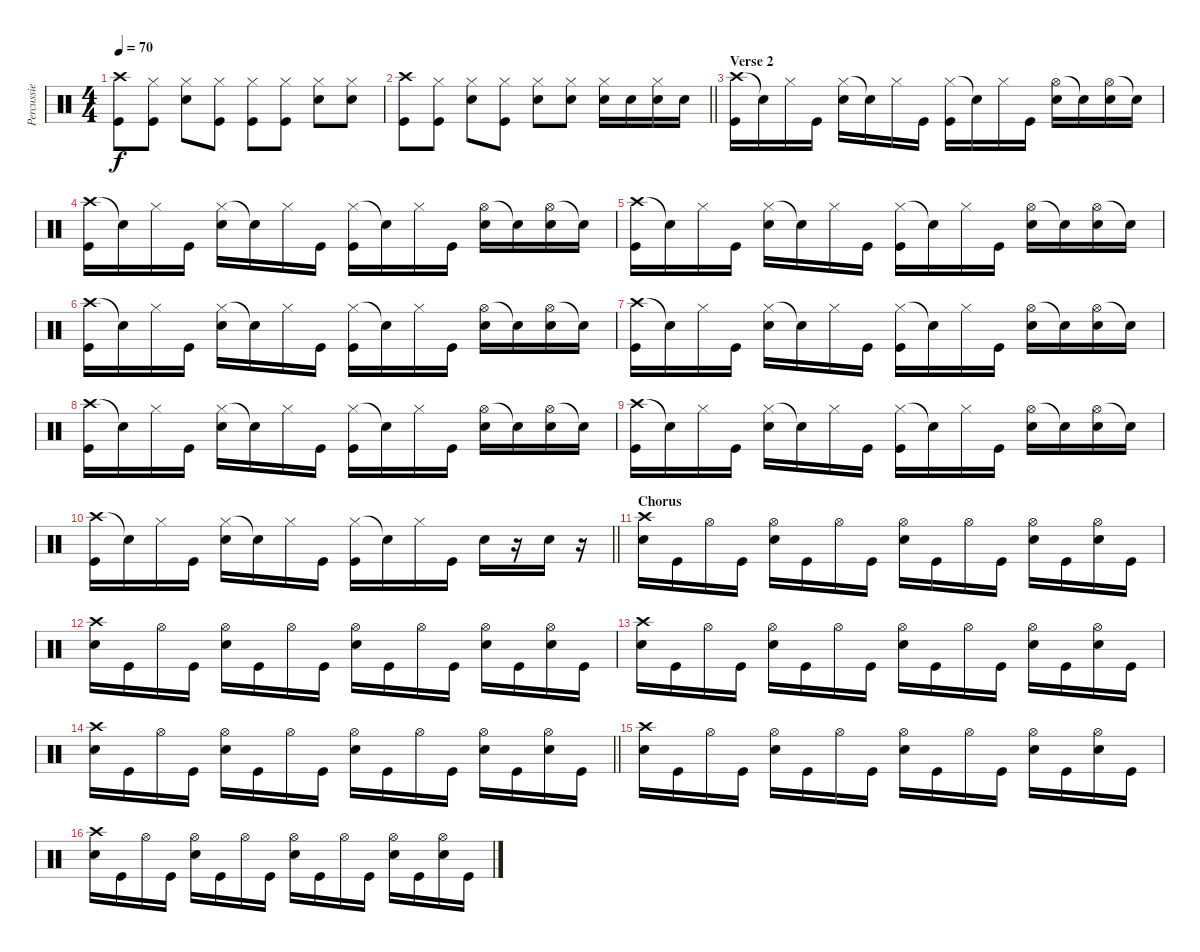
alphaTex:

\track ("Percussie" "Percussie") {instrument percussion}
\staff {score}
\articulation defaults
\ts (4 4)
\tempo 70
\clef neutral
\ks c
("Crash high (hit)" "Kick (hit)").8{dy f} ("Hi-Hat (closed)" "Kick (hit)").8 ("Hi-Hat (closed)" "Snare (hit) 2").8 ("Hi-Hat (closed)" "Kick (hit)").8 ("Hi-Hat (closed)" "Kick (hit)").8 ("Hi-Hat (closed)" "Kick (hit)").8 ("Hi-Hat (closed)" "Snare (hit) 2").8 ("Hi-Hat (closed)" "Snare (hit) 2").8 |
\barLineRight lightlight
("Crash high (hit)" "Kick (hit)").8 ("Hi-Hat (closed)" "Kick (hit)").8 ("Hi-Hat (closed)" "Snare (hit) 2").8 ("Hi-Hat (closed)" "Kick (hit)").8 ("Hi-Hat (closed)" "Snare (hit) 2").8 ("Hi-Hat (closed)" "Snare (hit) 2").8 ("Hi-Hat (closed)" "Snare (hit) 2").16 "Snare (hit) 2".16 ("Hi-Hat (closed)" "Snare (hit) 2").16 "Snare (hit) 2".16 |
\section ("" "Verse 2")
("Crash high (hit)" "Kick (hit)").16 "Snare (hit)"{t}.16 "Hi-Hat (closed)".16 "Kick (hit)".16 ("Hi-Hat (closed)" "Snare (hit) 2").16 "Snare (hit)"{t}.16 "Hi-Hat (closed)".16 "Kick (hit)".16 ("Hi-Hat (closed)" "Kick (hit)").16 "Snare (hit)"{t}.16 "Hi-Hat (closed)".16 "Kick (hit)".16 ("Hi-Hat (open)" "Snare (hit) 2").16 "Snare (hit)"{t}.16 ("Hi-Hat (open)" "Snare (hit) 2").16 "Snare (hit)"{t}.16 |
("Crash high (hit)" "Kick (hit)").16 "Snare (hit)"{t}.16 "Hi-Hat (closed)".16 "Kick (hit)".16 ("Hi-Hat (closed)" "Snare (hit) 2").16 "Snare (hit)"{t}.16 "Hi-Hat (closed)".16 "Kick (hit)".16 ("Hi-Hat (closed)" "Kick (hit)").16 "Snare (hit)"{t}.16 "Hi-Hat (closed)".16 "Kick (hit)".16 ("Hi-Hat (open)" "Snare (hit) 2").16 "Snare (hit)"{t}.16 ("Hi-Hat (open)" "Snare (hit) 2").16 "Snare (hit)"{t}.16 |
("Crash high (hit)" "Kick (hit)").16 "Snare (hit)"{t}.16 "Hi-Hat (closed)".16 "Kick (hit)".16 ("Hi-Hat (closed)" "Snare (hit) 2").16 "Snare (hit)"{t}.16 "Hi-Hat (closed)".16 "Kick (hit)".16 ("Hi-Hat (closed)" "Kick (hit)").16 "Snare (hit)"{t}.16 "Hi-Hat (closed)".16 "Kick (hit)".16 ("Hi-Hat (open)" "Snare (hit) 2").16 "Snare (hit)"{t}.16 ("Hi-Hat (open)" "Snare (hit) 2").16 "Snare (hit)"{t}.16 |
("Crash high (hit)" "Kick (hit)").16 "Snare (hit)"{t}.16 "Hi-Hat (closed)".16 "Kick (hit)".16 ("Hi-Hat (closed)" "Snare (hit) 2").16 "Snare (hit)"{t}.16 "Hi-Hat (closed)".16 "Kick (hit)".16 ("Hi-Hat (closed)" "Kick (hit)").16 "Snare (hit)"{t}.16 "Hi-Hat (closed)".16 "Kick (hit)".16 ("Hi-Hat (open)" "Snare (hit) 2").16 "Snare (hit)"{t}.16 ("Hi-Hat (open)" "Snare (hit) 2").16 "Snare (hit)"{t}.16 |
("Crash high (hit)" "Kick (hit)").16 "Snare (hit)"{t}.16 "Hi-Hat (closed)".16 "Kick (hit)".16 ("Hi-Hat (closed)" "Snare (hit) 2").16 "Snare (hit)"{t}.16 "Hi-Hat (closed)".16 "Kick (hit)".16 ("Hi-Hat (closed)" "Kick (hit)").16 "Snare (hit)"{t}.16 "Hi-Hat (closed)".16 "Kick (hit)".16 ("Hi-Hat (open)" "Snare (hit) 2").16 "Snare (hit)"{t}.16 ("Hi-Hat (open)" "Snare (hit) 2").16 "Snare (hit)"{t}.16 |
("Crash high (hit)" "Kick (hit)").16 "Snare (hit)"{t}.16 "Hi-Hat (closed)".16 "Kick (hit)".16 ("Hi-Hat (closed)" "Snare (hit) 2").16 "Snare (hit)"{t}.16 "Hi-Hat (closed)".16 "Kick (hit)".16 ("Hi-Hat (closed)" "Kick (hit)").16 "Snare (hit)"{t}.16 "Hi-Hat (closed)".16 "Kick (hit)".16 ("Hi-Hat (open)" "Snare (hit) 2").16 "Snare (hit)"{t}.16 ("Hi-Hat (open)" "Snare (hit) 2").16 "Snare (hit)"{t}.16 |
("Crash high (hit)" "Kick (hit)").16 "Snare (hit)"{t}.16 "Hi-Hat (closed)".16 "Kick (hit)".16 ("Hi-Hat (closed)" "Snare (hit) 2").16 "Snare (hit)"{t}.16 "Hi-Hat (closed)".16 "Kick (hit)".16 ("Hi-Hat (closed)" "Kick (hit)").16 "Snare (hit)"{t}.16 "Hi-Hat (closed)".16 "Kick (hit)".16 ("Hi-Hat (open)" "Snare (hit) 2").16 "Snare (hit)"{t}.16 ("Hi-Hat (open)" "Snare (hit) 2").16 "Snare (hit)"{t}.16 |
\barLineRight lightlight
("Crash high (hit)" "Kick (hit)").16 "Snare (hit)"{t}.16 "Hi-Hat (closed)".16 "Kick (hit)".16 ("Hi-Hat (closed)" "Snare (hit) 2").16 "Snare (hit)"{t}.16 "Hi-Hat (closed)".16 "Kick (hit)".16 ("Hi-Hat (closed)" "Kick (hit)").16 "Snare (hit)"{t}.16 "Hi-Hat (closed)".16 "Kick (hit)".16 "Snare (hit) 2".16 r.16 "Snare (hit) 2".16 r.16 |
\section ("" "Chorus")
("Crash high (hit)" "Snare (hit) 2").16 "Kick (hit)".16 "Hi-Hat (open)".16 "Kick (hit)".16 ("Hi-Hat (open)" "Snare (hit) 2").16 "Kick (hit)".16 "Hi-Hat (open)".16 "Kick (hit)".16 ("Hi-Hat (open)" "Snare (hit) 2").16 "Kick (hit)".16 "Hi-Hat (open)".16 "Kick (hit)".16 ("Hi-Hat (open)" "Snare (hit) 2").16 "Kick (hit)".16 ("Hi-Hat (open)" "Snare (hit) 2").16 "Kick (hit)".16 |
("Crash high (hit)" "Snare (hit) 2").16 "Kick (hit)".16 "Hi-Hat (open)".16 "Kick (hit)".16 ("Hi-Hat (open)" "Snare (hit) 2").16 "Kick (hit)".16 "Hi-Hat (open)".16 "Kick (hit)".16 ("Hi-Hat (open)" "Snare (hit) 2").16 "Kick (hit)".16 "Hi-Hat (open)".16 "Kick (hit)".16 ("Hi-Hat (open)" "Snare (hit) 2").16 "Kick (hit)".16 ("Hi-Hat (open)" "Snare (hit) 2").16 "Kick (hit)".16 |
("Crash high (hit)" "Snare (hit) 2").16 "Kick (hit)".16 "Hi-Hat (open)".16 "Kick (hit)".16 ("Hi-Hat (open)" "Snare (hit) 2").16 "Kick (hit)".16 "Hi-Hat (open)".16 "Kick (hit)".16 ("Hi-Hat (open)" "Snare (hit) 2").16 "Kick (hit)".16 "Hi-Hat (open)".16 "Kick (hit)".16 ("Hi-Hat (open)" "Snare (hit) 2").16 "Kick (hit)".16 ("Hi-Hat (open)" "Snare (hit) 2").16 "Kick (hit)".16 |
\barLineRight lightlight
("Crash high (hit)" "Snare (hit) 2").16 "Kick (hit)".16 "Hi-Hat (open)".16 "Kick (hit)".16 ("Hi-Hat (open)" "Snare (hit) 2").16 "Kick (hit)".16 "Hi-Hat (open)".16 "Kick (hit)".16 ("Hi-Hat (open)" "Snare (hit) 2").16 "Kick (hit)".16 "Hi-Hat (open)".16 "Kick (hit)".16 ("Hi-Hat (open)" "Snare (hit) 2").16 "Kick (hit)".16 ("Hi-Hat (open)" "Snare (hit) 2").16 "Kick (hit)".16 |
("Crash high (hit)" "Snare (hit) 2").16 "Kick (hit)".16 "Hi-Hat (open)".16 "Kick (hit)".16 ("Hi-Hat (open)" "Snare (hit) 2").16 "Kick (hit)".16 "Hi-Hat (open)".16 "Kick (hit)".16 ("Hi-Hat (open)" "Snare (hit) 2").16 "Kick (hit)".16 "Hi-Hat (open)".16 "Kick (hit)".16 ("Hi-Hat (open)" "Snare (hit) 2").16 "Kick (hit)".16 ("Hi-Hat (open)" "Snare (hit) 2").16 "Kick (hit)".16 |
("Crash high (hit)" "Snare (hit) 2").16 "Kick (hit)".16 "Hi-Hat (open)".16 "Kick (hit)".16 ("Hi-Hat (open)" "Snare (hit) 2").16 "Kick (hit)".16 "Hi-Hat (open)".16 "Kick (hit)".16 ("Hi-Hat (open)" "Snare (hit) 2").16 "Kick (hit)".16 "Hi-Hat (open)".16 "Kick (hit)".16 ("Hi-Hat (open)" "Snare (hit) 2").16 "Kick (hit)".16 ("Hi-Hat (open)" "Snare (hit) 2").16 "Kick (hit)".16
